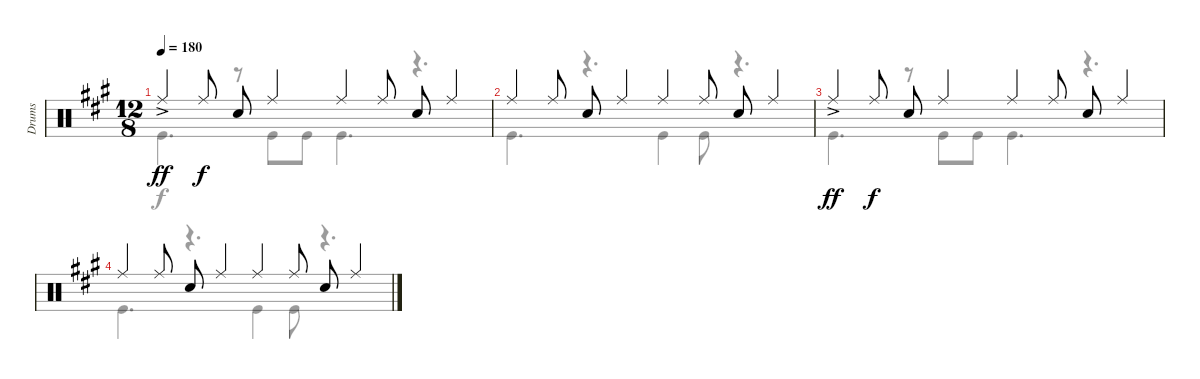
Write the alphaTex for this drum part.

\track ("Drums" "Drums") {instrument percussion}
\staff {score}
\articulation defaults
\voice
\ts (12 8)
\tempo 180
\clef neutral
\ks a "Ride (middle)"{ac}.4{dy ff} "Ride (middle)".8{dy f} "Snare (hit) 2".8 "Ride (middle)".4 "Ride (middle)".4 "Ride (middle)".8 "Snare (hit) 2".8 "Ride (middle)".4
|
"Ride (middle)".4 "Ride (middle)".8 "Snare (hit) 2".8 "Ride (middle)".4 "Ride (middle)".4 "Ride (middle)".8 "Snare (hit) 2".8 "Ride (middle)".4 |
"Ride (middle)"{ac}.4{dy ff} "Ride (middle)".8{dy f} "Snare (hit) 2".8 "Ride (middle)".4 "Ride (middle)".4 "Ride (middle)".8 "Snare (hit) 2".8 "Ride (middle)".4 |
"Ride (middle)".4 "Ride (middle)".8 "Snare (hit) 2".8 "Ride (middle)".4 "Ride (middle)".4 "Ride (middle)".8 "Snare (hit) 2".8 "Ride (middle)".4
\voice
\clef neutral
\ottava regular
\simile none
\ks a "Kick (hit)".4{d dy f}
r.8 "Kick (hit)".8 "Kick (hit)".8 "Kick (hit)".4{d} r.4{d} |
"Kick (hit)".4{d} r.4{d} "Kick (hit)".4 "Kick (hit)".8 r.4{d} |
"Kick (hit)".4{d} r.8 "Kick (hit)".8 "Kick (hit)".8 "Kick (hit)".4{d} r.4{d} |
"Kick (hit)".4{d} r.4{d} "Kick (hit)".4 "Kick (hit)".8 r.4{d}
